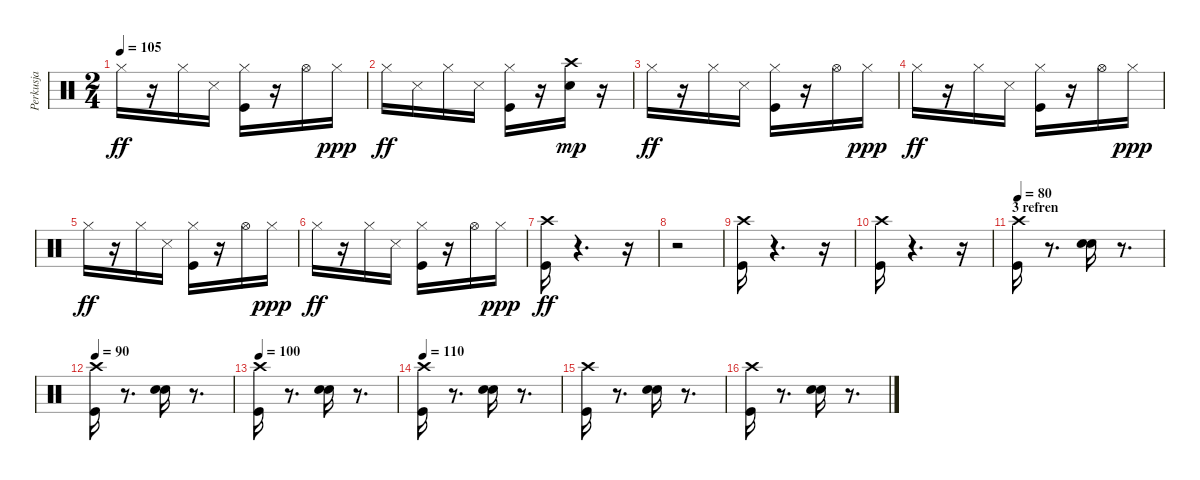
\track ("Perkusja" "Perkusja") {instrument percussion}
\staff {score}
\articulation defaults
\ts (2 4)
\tempo 105
\clef neutral
\ks c "Hi-Hat (closed)".16{dy ff}
r.16 "Hi-Hat (closed)".16 "Snare (side stick) 3".16 ("Kick (hit)" "Hi-Hat (closed)").16 r.16 "Hi-Hat (open)".16 "Hi-Hat (closed)".16{dy ppp} |
"Hi-Hat (closed)".16{dy ff} "Snare (side stick) 3".16 "Hi-Hat (closed)".16 "Snare (side stick) 3".16 ("Kick (hit)" "Hi-Hat (closed)").16 r.16 ("Snare (hit) 2" "Crash high (hit)").16{dy mp} r.16 |
"Hi-Hat (closed)".16{dy ff} r.16 "Hi-Hat (closed)".16 "Snare (side stick) 3".16 ("Kick (hit)" "Hi-Hat (closed)").16 r.16 "Hi-Hat (open)".16 "Hi-Hat (closed)".16{dy ppp} |
"Hi-Hat (closed)".16{dy ff} r.16 "Hi-Hat (closed)".16 "Snare (side stick) 3".16 ("Kick (hit)" "Hi-Hat (closed)").16 r.16 "Hi-Hat (open)".16 "Hi-Hat (closed)".16{dy ppp} |
"Hi-Hat (closed)".16{dy ff} r.16 "Hi-Hat (closed)".16 "Snare (side stick) 3".16 ("Kick (hit)" "Hi-Hat (closed)").16 r.16 "Hi-Hat (open)".16 "Hi-Hat (closed)".16{dy ppp} |
"Hi-Hat (closed)".16{dy ff} r.16 "Hi-Hat (closed)".16 "Snare (side stick) 3".16 ("Kick (hit)" "Hi-Hat (closed)").16 r.16 "Hi-Hat (open)".16 "Hi-Hat (closed)".16{dy ppp} |
("Kick (hit)" "Crash high (hit)").16{dy ff} r.4{d} r.16 |
r.2 |
("Kick (hit)" "Crash high (hit)").16 r.4{d} r.16 |
("Kick (hit)" "Crash high (hit)").16 r.4{d} r.16 |
\section ("" "3 refren")
\tempo 80
("Kick (hit)" "Crash high (hit)").16 r.8{d} ("Snare (hit) 2" "Snare (hit) 2").16 r.8{d} |
\tempo 90
("Kick (hit)" "Crash high (hit)").16 r.8{d} ("Snare (hit) 2" "Snare (hit) 2").16 r.8{d} |
\tempo 100
("Kick (hit)" "Crash high (hit)").16 r.8{d} ("Snare (hit) 2" "Snare (hit) 2").16 r.8{d} |
\tempo 110
("Kick (hit)" "Crash high (hit)").16 r.8{d} ("Snare (hit) 2" "Snare (hit) 2").16 r.8{d} |
("Kick (hit)" "Crash high (hit)").16 r.8{d} ("Snare (hit) 2" "Snare (hit) 2").16 r.8{d} |
("Kick (hit)" "Crash high (hit)").16 r.8{d} ("Snare (hit) 2" "Snare (hit) 2").16 r.8{d}
